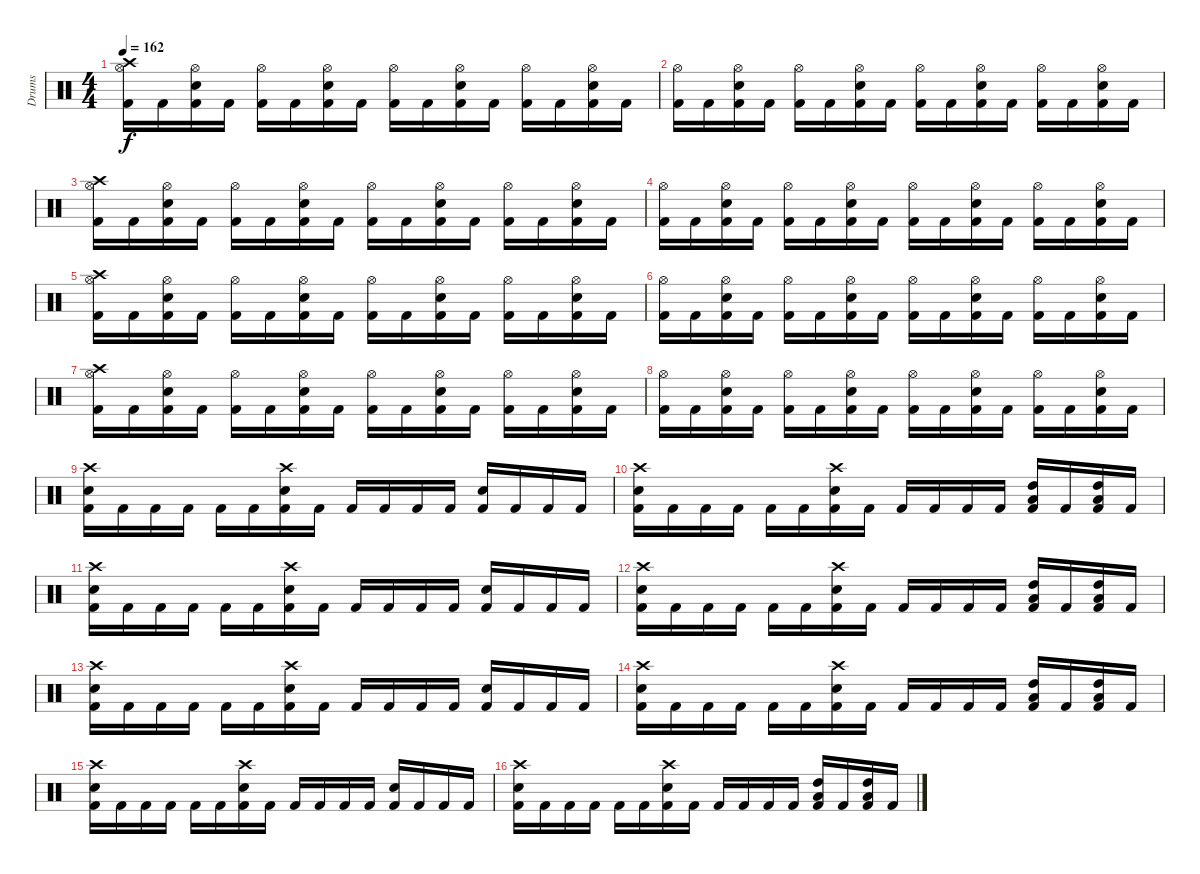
\track ("Drums" "Drums") {instrument percussion}
\staff {score}
\articulation defaults
\ts (4 4)
\tempo 162
\clef neutral
\ks c
("Crash high (hit)" "Hi-Hat (open)" "Kick (hit) 2").16{dy f} "Kick (hit) 2".16 ("Electric Snare (hit)" "Hi-Hat (open)" "Kick (hit) 2").16 "Kick (hit) 2".16 ("Hi-Hat (open)" "Kick (hit) 2").16 "Kick (hit) 2".16 ("Electric Snare (hit)" "Hi-Hat (open)" "Kick (hit) 2").16 "Kick (hit) 2".16 ("Hi-Hat (open)" "Kick (hit) 2").16 "Kick (hit) 2".16 ("Electric Snare (hit)" "Hi-Hat (open)" "Kick (hit) 2").16 "Kick (hit) 2".16 ("Hi-Hat (open)" "Kick (hit) 2").16 "Kick (hit) 2".16 ("Electric Snare (hit)" "Hi-Hat (open)" "Kick (hit) 2").16 "Kick (hit) 2".16 |
("Hi-Hat (open)" "Kick (hit) 2").16 "Kick (hit) 2".16 ("Electric Snare (hit)" "Hi-Hat (open)" "Kick (hit) 2").16 "Kick (hit) 2".16 ("Hi-Hat (open)" "Kick (hit) 2").16 "Kick (hit) 2".16 ("Electric Snare (hit)" "Hi-Hat (open)" "Kick (hit) 2").16 "Kick (hit) 2".16 ("Hi-Hat (open)" "Kick (hit) 2").16 "Kick (hit) 2".16 ("Electric Snare (hit)" "Hi-Hat (open)" "Kick (hit) 2").16 "Kick (hit) 2".16 ("Hi-Hat (open)" "Kick (hit) 2").16 "Kick (hit) 2".16 ("Electric Snare (hit)" "Hi-Hat (open)" "Kick (hit) 2").16 "Kick (hit) 2".16 |
("Crash high (hit)" "Hi-Hat (open)" "Kick (hit) 2").16 "Kick (hit) 2".16 ("Electric Snare (hit)" "Hi-Hat (open)" "Kick (hit) 2").16 "Kick (hit) 2".16 ("Hi-Hat (open)" "Kick (hit) 2").16 "Kick (hit) 2".16 ("Electric Snare (hit)" "Hi-Hat (open)" "Kick (hit) 2").16 "Kick (hit) 2".16 ("Hi-Hat (open)" "Kick (hit) 2").16 "Kick (hit) 2".16 ("Electric Snare (hit)" "Hi-Hat (open)" "Kick (hit) 2").16 "Kick (hit) 2".16 ("Hi-Hat (open)" "Kick (hit) 2").16 "Kick (hit) 2".16 ("Electric Snare (hit)" "Hi-Hat (open)" "Kick (hit) 2").16 "Kick (hit) 2".16 |
("Hi-Hat (open)" "Kick (hit) 2").16 "Kick (hit) 2".16 ("Electric Snare (hit)" "Hi-Hat (open)" "Kick (hit) 2").16 "Kick (hit) 2".16 ("Hi-Hat (open)" "Kick (hit) 2").16 "Kick (hit) 2".16 ("Electric Snare (hit)" "Hi-Hat (open)" "Kick (hit) 2").16 "Kick (hit) 2".16 ("Hi-Hat (open)" "Kick (hit) 2").16 "Kick (hit) 2".16 ("Electric Snare (hit)" "Hi-Hat (open)" "Kick (hit) 2").16 "Kick (hit) 2".16 ("Hi-Hat (open)" "Kick (hit) 2").16 "Kick (hit) 2".16 ("Electric Snare (hit)" "Hi-Hat (open)" "Kick (hit) 2").16 "Kick (hit) 2".16 |
("Crash high (hit)" "Hi-Hat (open)" "Kick (hit) 2").16 "Kick (hit) 2".16 ("Electric Snare (hit)" "Hi-Hat (open)" "Kick (hit) 2").16 "Kick (hit) 2".16 ("Hi-Hat (open)" "Kick (hit) 2").16 "Kick (hit) 2".16 ("Electric Snare (hit)" "Hi-Hat (open)" "Kick (hit) 2").16 "Kick (hit) 2".16 ("Hi-Hat (open)" "Kick (hit) 2").16 "Kick (hit) 2".16 ("Electric Snare (hit)" "Hi-Hat (open)" "Kick (hit) 2").16 "Kick (hit) 2".16 ("Hi-Hat (open)" "Kick (hit) 2").16 "Kick (hit) 2".16 ("Electric Snare (hit)" "Hi-Hat (open)" "Kick (hit) 2").16 "Kick (hit) 2".16 |
("Hi-Hat (open)" "Kick (hit) 2").16 "Kick (hit) 2".16 ("Electric Snare (hit)" "Hi-Hat (open)" "Kick (hit) 2").16 "Kick (hit) 2".16 ("Hi-Hat (open)" "Kick (hit) 2").16 "Kick (hit) 2".16 ("Electric Snare (hit)" "Hi-Hat (open)" "Kick (hit) 2").16 "Kick (hit) 2".16 ("Hi-Hat (open)" "Kick (hit) 2").16 "Kick (hit) 2".16 ("Electric Snare (hit)" "Hi-Hat (open)" "Kick (hit) 2").16 "Kick (hit) 2".16 ("Hi-Hat (open)" "Kick (hit) 2").16 "Kick (hit) 2".16 ("Electric Snare (hit)" "Hi-Hat (open)" "Kick (hit) 2").16 "Kick (hit) 2".16 |
("Crash high (hit)" "Hi-Hat (open)" "Kick (hit) 2").16 "Kick (hit) 2".16 ("Electric Snare (hit)" "Hi-Hat (open)" "Kick (hit) 2").16 "Kick (hit) 2".16 ("Hi-Hat (open)" "Kick (hit) 2").16 "Kick (hit) 2".16 ("Electric Snare (hit)" "Hi-Hat (open)" "Kick (hit) 2").16 "Kick (hit) 2".16 ("Hi-Hat (open)" "Kick (hit) 2").16 "Kick (hit) 2".16 ("Electric Snare (hit)" "Hi-Hat (open)" "Kick (hit) 2").16 "Kick (hit) 2".16 ("Hi-Hat (open)" "Kick (hit) 2").16 "Kick (hit) 2".16 ("Electric Snare (hit)" "Hi-Hat (open)" "Kick (hit) 2").16 "Kick (hit) 2".16 |
("Hi-Hat (open)" "Kick (hit) 2").16 "Kick (hit) 2".16 ("Electric Snare (hit)" "Hi-Hat (open)" "Kick (hit) 2").16 "Kick (hit) 2".16 ("Hi-Hat (open)" "Kick (hit) 2").16 "Kick (hit) 2".16 ("Electric Snare (hit)" "Hi-Hat (open)" "Kick (hit) 2").16 "Kick (hit) 2".16 ("Hi-Hat (open)" "Kick (hit) 2").16 "Kick (hit) 2".16 ("Electric Snare (hit)" "Hi-Hat (open)" "Kick (hit) 2").16 "Kick (hit) 2".16 ("Hi-Hat (open)" "Kick (hit) 2").16 "Kick (hit) 2".16 ("Electric Snare (hit)" "Hi-Hat (open)" "Kick (hit) 2").16 "Kick (hit) 2".16 |
("Kick (hit) 2" "Crash high (hit)" "Electric Snare (hit)").16 "Kick (hit) 2".16 "Kick (hit) 2".16 "Kick (hit) 2".16 "Kick (hit) 2".16 "Kick (hit) 2".16 ("Kick (hit) 2" "Crash high (hit)" "Electric Snare (hit)").16 "Kick (hit) 2".16 "Kick (hit) 2".16 "Kick (hit) 2".16 "Kick (hit) 2".16 "Kick (hit) 2".16 ("Kick (hit) 2" "Electric Snare (hit)").16 "Kick (hit) 2".16 "Kick (hit) 2".16 "Kick (hit) 2".16 |
("Kick (hit) 2" "Crash high (hit)" "Electric Snare (hit)").16 "Kick (hit) 2".16 "Kick (hit) 2".16 "Kick (hit) 2".16 "Kick (hit) 2".16 "Kick (hit) 2".16 ("Kick (hit) 2" "Crash high (hit)" "Electric Snare (hit)").16 "Kick (hit) 2".16 "Kick (hit) 2".16 "Kick (hit) 2".16 "Kick (hit) 2".16 "Kick (hit) 2".16 ("Kick (hit) 2" "High Tom (hit)" "Low Tom (hit)").16 "Kick (hit) 2".16 ("Kick (hit) 2" "High Tom (hit)" "Low Tom (hit)").16 "Kick (hit) 2".16 |
("Kick (hit) 2" "Crash high (hit)" "Electric Snare (hit)").16 "Kick (hit) 2".16 "Kick (hit) 2".16 "Kick (hit) 2".16 "Kick (hit) 2".16 "Kick (hit) 2".16 ("Kick (hit) 2" "Crash high (hit)" "Electric Snare (hit)").16 "Kick (hit) 2".16 "Kick (hit) 2".16 "Kick (hit) 2".16 "Kick (hit) 2".16 "Kick (hit) 2".16 ("Kick (hit) 2" "Electric Snare (hit)").16 "Kick (hit) 2".16 "Kick (hit) 2".16 "Kick (hit) 2".16 |
("Kick (hit) 2" "Crash high (hit)" "Electric Snare (hit)").16 "Kick (hit) 2".16 "Kick (hit) 2".16 "Kick (hit) 2".16 "Kick (hit) 2".16 "Kick (hit) 2".16 ("Kick (hit) 2" "Crash high (hit)" "Electric Snare (hit)").16 "Kick (hit) 2".16 "Kick (hit) 2".16 "Kick (hit) 2".16 "Kick (hit) 2".16 "Kick (hit) 2".16 ("Kick (hit) 2" "High Tom (hit)" "Low Tom (hit)").16 "Kick (hit) 2".16 ("Kick (hit) 2" "High Tom (hit)" "Low Tom (hit)").16 "Kick (hit) 2".16 |
("Kick (hit) 2" "Crash high (hit)" "Electric Snare (hit)").16 "Kick (hit) 2".16 "Kick (hit) 2".16 "Kick (hit) 2".16 "Kick (hit) 2".16 "Kick (hit) 2".16 ("Kick (hit) 2" "Crash high (hit)" "Electric Snare (hit)").16 "Kick (hit) 2".16 "Kick (hit) 2".16 "Kick (hit) 2".16 "Kick (hit) 2".16 "Kick (hit) 2".16 ("Kick (hit) 2" "Electric Snare (hit)").16 "Kick (hit) 2".16 "Kick (hit) 2".16 "Kick (hit) 2".16 |
("Kick (hit) 2" "Crash high (hit)" "Electric Snare (hit)").16 "Kick (hit) 2".16 "Kick (hit) 2".16 "Kick (hit) 2".16 "Kick (hit) 2".16 "Kick (hit) 2".16 ("Kick (hit) 2" "Crash high (hit)" "Electric Snare (hit)").16 "Kick (hit) 2".16 "Kick (hit) 2".16 "Kick (hit) 2".16 "Kick (hit) 2".16 "Kick (hit) 2".16 ("Kick (hit) 2" "High Tom (hit)" "Low Tom (hit)").16 "Kick (hit) 2".16 ("Kick (hit) 2" "High Tom (hit)" "Low Tom (hit)").16 "Kick (hit) 2".16 |
("Kick (hit) 2" "Crash high (hit)" "Electric Snare (hit)").16 "Kick (hit) 2".16 "Kick (hit) 2".16 "Kick (hit) 2".16 "Kick (hit) 2".16 "Kick (hit) 2".16 ("Kick (hit) 2" "Crash high (hit)" "Electric Snare (hit)").16 "Kick (hit) 2".16 "Kick (hit) 2".16 "Kick (hit) 2".16 "Kick (hit) 2".16 "Kick (hit) 2".16 ("Kick (hit) 2" "Electric Snare (hit)").16 "Kick (hit) 2".16 "Kick (hit) 2".16 "Kick (hit) 2".16 |
("Kick (hit) 2" "Crash high (hit)" "Electric Snare (hit)").16 "Kick (hit) 2".16 "Kick (hit) 2".16 "Kick (hit) 2".16 "Kick (hit) 2".16 "Kick (hit) 2".16 ("Kick (hit) 2" "Crash high (hit)" "Electric Snare (hit)").16 "Kick (hit) 2".16 "Kick (hit) 2".16 "Kick (hit) 2".16 "Kick (hit) 2".16 "Kick (hit) 2".16 ("Kick (hit) 2" "High Tom (hit)" "Low Tom (hit)").16 "Kick (hit) 2".16 ("Kick (hit) 2" "High Tom (hit)" "Low Tom (hit)").16 "Kick (hit) 2".16
